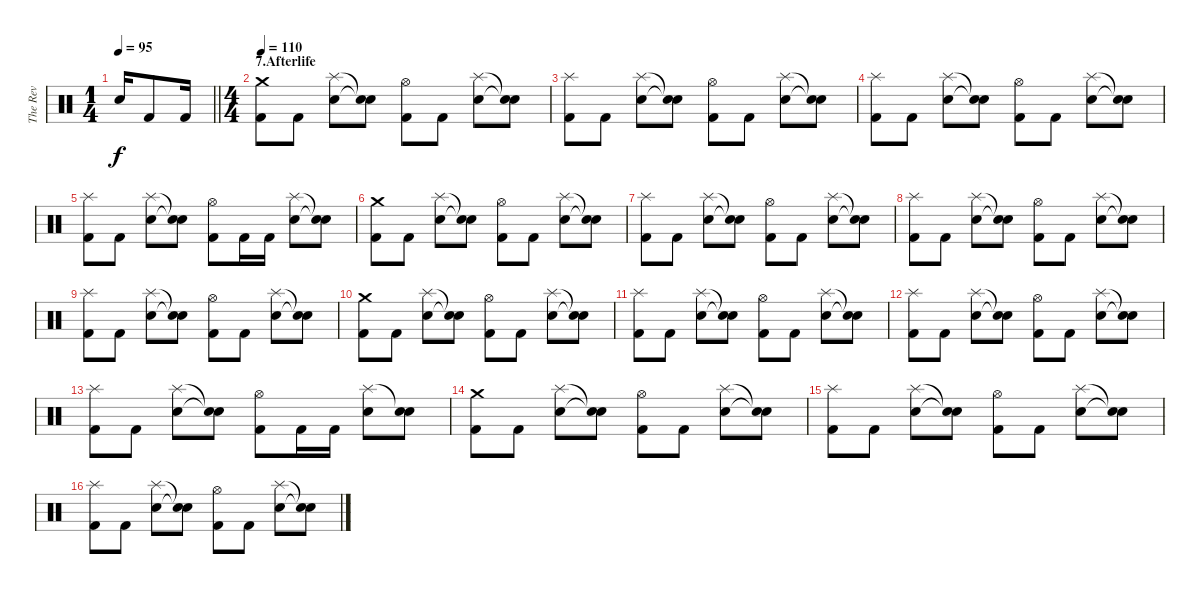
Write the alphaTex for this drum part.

\track ("The Rev" "The Rev") {instrument percussion}
\staff {score}
\articulation defaults
\ts (1 4)
\tempo 95
\clef neutral
\barLineRight lightlight
\ks c "Electric Snare (hit)".16{dy f} "Kick (hit) 2".8 "Kick (hit) 2".16
|
\ts (4 4)
\section ("" "7.Afterlife")
\tempo 110
("Crash medium (hit)" "Kick (hit) 2").8 "Kick (hit) 2".8 ("Splash (hit)" "Electric Snare (hit)").8 ("Snare (hit)"{t} "Snare (hit)"{t}).8 ("Hi-Hat (open)" "Kick (hit) 2").8 "Kick (hit) 2".8 ("Splash (hit)" "Electric Snare (hit)").8 ("Snare (hit)"{t} "Snare (hit)"{t}).8 |
("Splash (hit)" "Kick (hit) 2").8 "Kick (hit) 2".8 ("Splash (hit)" "Electric Snare (hit)").8 ("Snare (hit)"{t} "Snare (hit)"{t}).8 ("Hi-Hat (open)" "Kick (hit) 2").8 "Kick (hit) 2".8 ("Splash (hit)" "Electric Snare (hit)").8 ("Snare (hit)"{t} "Snare (hit)"{t}).8 |
("Splash (hit)" "Kick (hit) 2").8 "Kick (hit) 2".8 ("Splash (hit)" "Electric Snare (hit)").8 ("Snare (hit)"{t} "Snare (hit)"{t}).8 ("Hi-Hat (open)" "Kick (hit) 2").8 "Kick (hit) 2".8 ("Splash (hit)" "Electric Snare (hit)").8 ("Snare (hit)"{t} "Snare (hit)"{t}).8 |
("Splash (hit)" "Kick (hit) 2").8 "Kick (hit) 2".8 ("Splash (hit)" "Electric Snare (hit)").8 ("Snare (hit)"{t} "Snare (hit)"{t}).8 ("Hi-Hat (open)" "Kick (hit) 2").8 "Kick (hit) 2".16 "Kick (hit) 2".16 ("Splash (hit)" "Electric Snare (hit)").8 ("Snare (hit)"{t} "Snare (hit)"{t}).8 |
("Crash medium (hit)" "Kick (hit) 2").8 "Kick (hit) 2".8 ("Splash (hit)" "Electric Snare (hit)").8 ("Snare (hit)"{t} "Snare (hit)"{t}).8 ("Hi-Hat (open)" "Kick (hit) 2").8 "Kick (hit) 2".8 ("Splash (hit)" "Electric Snare (hit)").8 ("Snare (hit)"{t} "Snare (hit)"{t}).8 |
("Splash (hit)" "Kick (hit) 2").8 "Kick (hit) 2".8 ("Splash (hit)" "Electric Snare (hit)").8 ("Snare (hit)"{t} "Snare (hit)"{t}).8 ("Hi-Hat (open)" "Kick (hit) 2").8 "Kick (hit) 2".8 ("Splash (hit)" "Electric Snare (hit)").8 ("Snare (hit)"{t} "Snare (hit)"{t}).8 |
("Splash (hit)" "Kick (hit) 2").8 "Kick (hit) 2".8 ("Splash (hit)" "Electric Snare (hit)").8 ("Snare (hit)"{t} "Snare (hit)"{t}).8 ("Hi-Hat (open)" "Kick (hit) 2").8 "Kick (hit) 2".8 ("Splash (hit)" "Electric Snare (hit)").8 ("Snare (hit)"{t} "Snare (hit)"{t}).8 |
("Splash (hit)" "Kick (hit) 2").8 "Kick (hit) 2".8 ("Splash (hit)" "Electric Snare (hit)").8 ("Snare (hit)"{t} "Snare (hit)"{t}).8 ("Hi-Hat (open)" "Kick (hit) 2").8 "Kick (hit) 2".8 ("Splash (hit)" "Electric Snare (hit)").8 ("Snare (hit)"{t} "Snare (hit)"{t}).8 |
("Crash medium (hit)" "Kick (hit) 2").8 "Kick (hit) 2".8 ("Splash (hit)" "Electric Snare (hit)").8 ("Snare (hit)"{t} "Snare (hit)"{t}).8 ("Hi-Hat (open)" "Kick (hit) 2").8 "Kick (hit) 2".8 ("Splash (hit)" "Electric Snare (hit)").8 ("Snare (hit)"{t} "Snare (hit)"{t}).8 |
("Splash (hit)" "Kick (hit) 2").8 "Kick (hit) 2".8 ("Splash (hit)" "Electric Snare (hit)").8 ("Snare (hit)"{t} "Snare (hit)"{t}).8 ("Hi-Hat (open)" "Kick (hit) 2").8 "Kick (hit) 2".8 ("Splash (hit)" "Electric Snare (hit)").8 ("Snare (hit)"{t} "Snare (hit)"{t}).8 |
("Splash (hit)" "Kick (hit) 2").8 "Kick (hit) 2".8 ("Splash (hit)" "Electric Snare (hit)").8 ("Snare (hit)"{t} "Snare (hit)"{t}).8 ("Hi-Hat (open)" "Kick (hit) 2").8 "Kick (hit) 2".8 ("Splash (hit)" "Electric Snare (hit)").8 ("Snare (hit)"{t} "Snare (hit)"{t}).8 |
("Splash (hit)" "Kick (hit) 2").8 "Kick (hit) 2".8 ("Splash (hit)" "Electric Snare (hit)").8 ("Snare (hit)"{t} "Snare (hit)"{t}).8 ("Hi-Hat (open)" "Kick (hit) 2").8 "Kick (hit) 2".16 "Kick (hit) 2".16 ("Splash (hit)" "Electric Snare (hit)").8 ("Snare (hit)"{t} "Electric Snare (hit)").8 |
("Crash medium (hit)" "Kick (hit) 2").8 "Kick (hit) 2".8 ("Splash (hit)" "Electric Snare (hit)").8 ("Snare (hit)"{t} "Snare (hit)"{t}).8 ("Hi-Hat (open)" "Kick (hit) 2").8 "Kick (hit) 2".8 ("Splash (hit)" "Electric Snare (hit)").8 ("Snare (hit)"{t} "Snare (hit)"{t}).8 |
("Splash (hit)" "Kick (hit) 2").8 "Kick (hit) 2".8 ("Splash (hit)" "Electric Snare (hit)").8 ("Snare (hit)"{t} "Snare (hit)"{t}).8 ("Hi-Hat (open)" "Kick (hit) 2").8 "Kick (hit) 2".8 ("Splash (hit)" "Electric Snare (hit)").8 ("Snare (hit)"{t} "Snare (hit)"{t}).8 |
("Splash (hit)" "Kick (hit) 2").8 "Kick (hit) 2".8 ("Splash (hit)" "Electric Snare (hit)").8 ("Snare (hit)"{t} "Snare (hit)"{t}).8 ("Hi-Hat (open)" "Kick (hit) 2").8 "Kick (hit) 2".8 ("Splash (hit)" "Electric Snare (hit)").8 ("Snare (hit)"{t} "Snare (hit)"{t}).8
